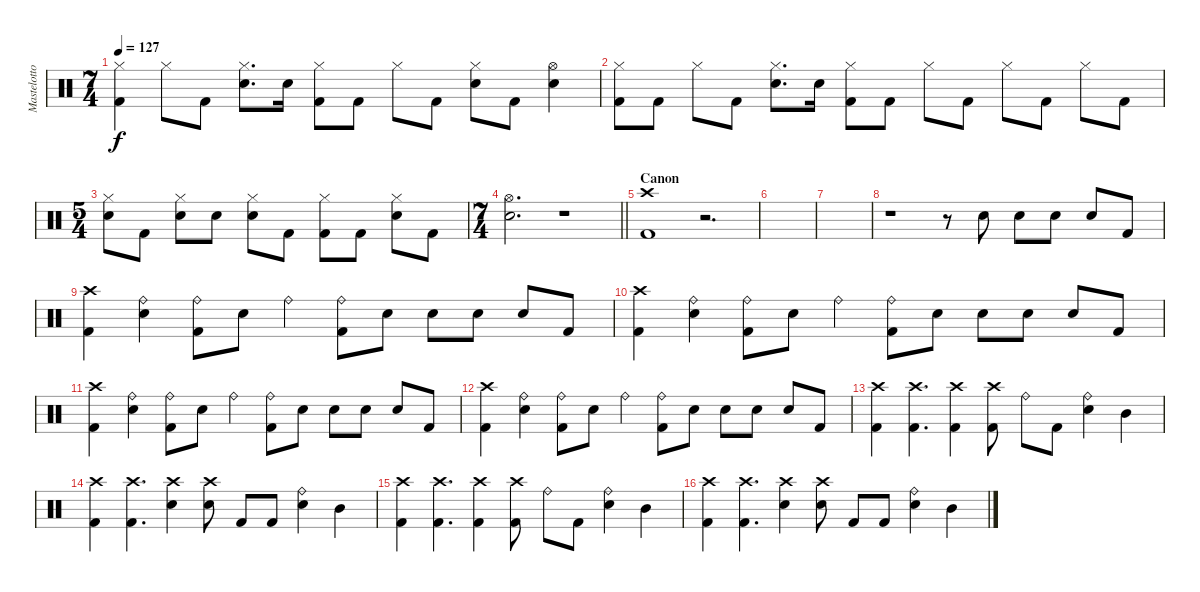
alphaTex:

\track ("Mastelotto" "Mastelotto") {instrument percussion}
\staff {score}
\articulation defaults
\ts (7 4)
\tempo 127
\clef neutral
\ks c
("Hi-Hat (closed)" "Kick (hit) 2").4{dy f} "Hi-Hat (closed)".8 "Kick (hit) 2".8 ("Hi-Hat (closed)" "Electric Snare (hit)").8{d} "Electric Snare (hit)".16 ("Hi-Hat (closed)" "Kick (hit) 2").8 "Kick (hit) 2".8 "Hi-Hat (closed)".8 "Kick (hit) 2".8 ("Hi-Hat (closed)" "Electric Snare (hit)").8 "Kick (hit) 2".8 ("Hi-Hat (open)" "Electric Snare (hit)").4 |
("Hi-Hat (closed)" "Kick (hit) 2").8 "Kick (hit) 2".8 "Hi-Hat (closed)".8 "Kick (hit) 2".8 ("Hi-Hat (closed)" "Electric Snare (hit)").8{d} "Electric Snare (hit)".16 ("Hi-Hat (closed)" "Kick (hit) 2").8 "Kick (hit) 2".8 "Hi-Hat (closed)".8 "Kick (hit) 2".8 "Hi-Hat (closed)".8 "Kick (hit) 2".8 "Hi-Hat (closed)".8 "Kick (hit) 2".8 |
\ts (5 4)
("Hi-Hat (closed)" "Electric Snare (hit)").8 "Kick (hit) 2".8 ("Hi-Hat (closed)" "Electric Snare (hit)").8 "Electric Snare (hit)".8 ("Hi-Hat (closed)" "Electric Snare (hit)").8 "Kick (hit) 2".8 ("Hi-Hat (closed)" "Kick (hit) 2").8 "Kick (hit) 2".8 ("Hi-Hat (closed)" "Electric Snare (hit)").8 "Kick (hit) 2".8 |
\ts (7 4)
\barLineRight lightlight
("Hi-Hat (open)" "Electric Snare (hit)").2{d} r.1 |
\section ("" "Canon")
("Crash high (hit)" "Kick (hit) 2").1 r.2{d} |
|
|
r.1 r.8 "Electric Snare (hit)".8 "Electric Snare (hit)".8 "Electric Snare (hit)".8 "Electric Snare (hit)".8 "Kick (hit) 2".8 |
("Crash high (hit)" "Kick (hit) 2").4 ("Ride (bell)" "Electric Snare (hit)").4 ("Ride (bell)" "Kick (hit) 2").8 "Electric Snare (hit)".8 "Ride (bell)".4 ("Ride (bell)" "Kick (hit) 2").8 "Electric Snare (hit)".8 "Electric Snare (hit)".8 "Electric Snare (hit)".8 "Electric Snare (hit)".8 "Kick (hit) 2".8 |
("Crash high (hit)" "Kick (hit) 2").4 ("Ride (bell)" "Electric Snare (hit)").4 ("Ride (bell)" "Kick (hit) 2").8 "Electric Snare (hit)".8 "Ride (bell)".4 ("Ride (bell)" "Kick (hit) 2").8 "Electric Snare (hit)".8 "Electric Snare (hit)".8 "Electric Snare (hit)".8 "Electric Snare (hit)".8 "Kick (hit) 2".8 |
("Crash high (hit)" "Kick (hit) 2").4 ("Ride (bell)" "Electric Snare (hit)").4 ("Ride (bell)" "Kick (hit) 2").8 "Electric Snare (hit)".8 "Ride (bell)".4 ("Ride (bell)" "Kick (hit) 2").8 "Electric Snare (hit)".8 "Electric Snare (hit)".8 "Electric Snare (hit)".8 "Electric Snare (hit)".8 "Kick (hit) 2".8 |
("Crash high (hit)" "Kick (hit) 2").4 ("Ride (bell)" "Electric Snare (hit)").4 ("Ride (bell)" "Kick (hit) 2").8 "Electric Snare (hit)".8 "Ride (bell)".4 ("Ride (bell)" "Kick (hit) 2").8 "Electric Snare (hit)".8 "Electric Snare (hit)".8 "Electric Snare (hit)".8 "Electric Snare (hit)".8 "Kick (hit) 2".8 |
("Crash high (hit)" "Kick (hit) 2").4 ("Crash high (hit)" "Kick (hit) 2").4{d} ("Crash high (hit)" "Kick (hit) 2").4 ("Crash high (hit)" "Kick (hit) 2").8 "Ride (bell)".8 "Kick (hit) 2".8 ("Ride (bell)" "Electric Snare (hit)").4 "Mid Tom (hit)".4 |
("Crash high (hit)" "Kick (hit) 2").4 ("Crash high (hit)" "Kick (hit) 2").4{d} ("Crash high (hit)" "Electric Snare (hit)").4 ("Crash high (hit)" "Electric Snare (hit)").8 "Kick (hit) 2".8 "Kick (hit) 2".8 ("Ride (bell)" "Electric Snare (hit)").4 "Mid Tom (hit)".4 |
("Crash high (hit)" "Kick (hit) 2").4 ("Crash high (hit)" "Kick (hit) 2").4{d} ("Crash high (hit)" "Kick (hit) 2").4 ("Crash high (hit)" "Kick (hit) 2").8 "Ride (bell)".8 "Kick (hit) 2".8 ("Ride (bell)" "Electric Snare (hit)").4 "Mid Tom (hit)".4 |
("Crash high (hit)" "Kick (hit) 2").4 ("Crash high (hit)" "Kick (hit) 2").4{d} ("Crash high (hit)" "Electric Snare (hit)").4 ("Crash high (hit)" "Electric Snare (hit)").8 "Kick (hit) 2".8 "Kick (hit) 2".8 ("Ride (bell)" "Electric Snare (hit)").4 "Mid Tom (hit)".4
